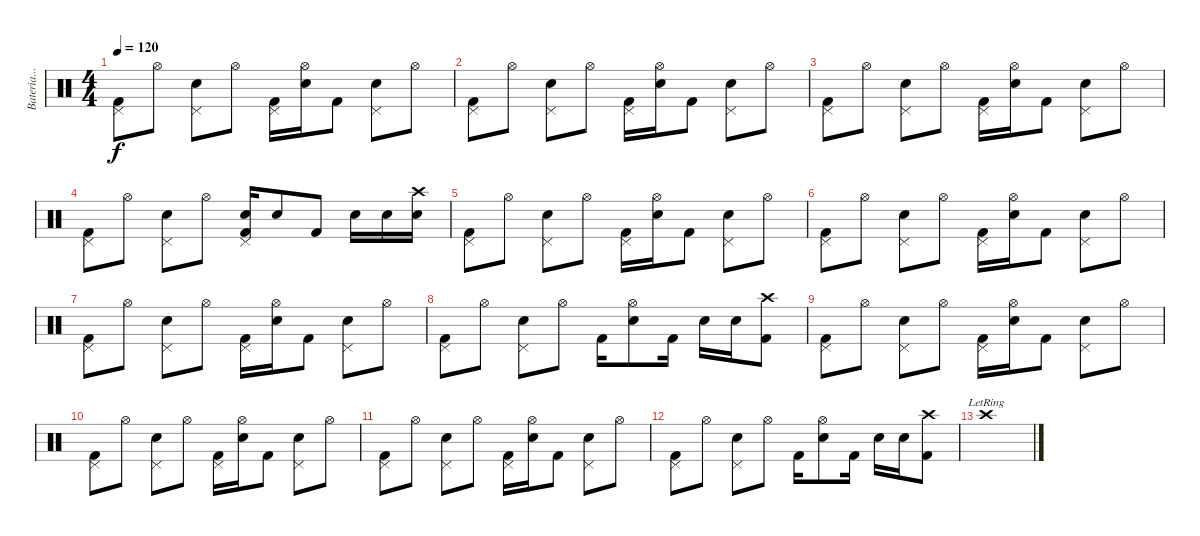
\track ("Bateria...xD" "Bateria...") {instrument percussion}
\staff {score}
\articulation defaults
\ts (4 4)
\tempo 120
\clef neutral
\ks c
("Pedal Hi-Hat (hit)" "Kick (hit) 2").8{dy f} "Hi-Hat (open)".8 ("Pedal Hi-Hat (hit)" "Electric Snare (hit)").8 "Hi-Hat (open)".8 ("Pedal Hi-Hat (hit)" "Kick (hit) 2").16 ("Hi-Hat (open)" "Electric Snare (hit)").16 "Kick (hit) 2".8 ("Pedal Hi-Hat (hit)" "Electric Snare (hit)").8 "Hi-Hat (open)".8 |
("Pedal Hi-Hat (hit)" "Kick (hit) 2").8 "Hi-Hat (open)".8 ("Pedal Hi-Hat (hit)" "Electric Snare (hit)").8 "Hi-Hat (open)".8 ("Pedal Hi-Hat (hit)" "Kick (hit) 2").16 ("Hi-Hat (open)" "Electric Snare (hit)").16 "Kick (hit) 2".8 ("Pedal Hi-Hat (hit)" "Electric Snare (hit)").8 "Hi-Hat (open)".8 |
("Pedal Hi-Hat (hit)" "Kick (hit) 2").8 "Hi-Hat (open)".8 ("Pedal Hi-Hat (hit)" "Electric Snare (hit)").8 "Hi-Hat (open)".8 ("Pedal Hi-Hat (hit)" "Kick (hit) 2").16 ("Hi-Hat (open)" "Electric Snare (hit)").16 "Kick (hit) 2".8 ("Pedal Hi-Hat (hit)" "Electric Snare (hit)").8 "Hi-Hat (open)".8 |
("Pedal Hi-Hat (hit)" "Kick (hit) 2").8 "Hi-Hat (open)".8 ("Pedal Hi-Hat (hit)" "Electric Snare (hit)").8 "Hi-Hat (open)".8 ("Pedal Hi-Hat (hit)" "Electric Snare (hit)" "Kick (hit) 2").16 "Electric Snare (hit)".8 "Kick (hit) 2".8 "Electric Snare (hit)".16 "Electric Snare (hit)".16 ("Crash high (hit)" "Electric Snare (hit)").16 |
("Pedal Hi-Hat (hit)" "Kick (hit) 2").8 "Hi-Hat (open)".8 ("Pedal Hi-Hat (hit)" "Electric Snare (hit)").8 "Hi-Hat (open)".8 ("Pedal Hi-Hat (hit)" "Kick (hit) 2").16 ("Hi-Hat (open)" "Electric Snare (hit)").16 "Kick (hit) 2".8 ("Pedal Hi-Hat (hit)" "Electric Snare (hit)").8 "Hi-Hat (open)".8 |
("Pedal Hi-Hat (hit)" "Kick (hit) 2").8 "Hi-Hat (open)".8 ("Pedal Hi-Hat (hit)" "Electric Snare (hit)").8 "Hi-Hat (open)".8 ("Pedal Hi-Hat (hit)" "Kick (hit) 2").16 ("Hi-Hat (open)" "Electric Snare (hit)").16 "Kick (hit) 2".8 ("Pedal Hi-Hat (hit)" "Electric Snare (hit)").8 "Hi-Hat (open)".8 |
("Pedal Hi-Hat (hit)" "Kick (hit) 2").8 "Hi-Hat (open)".8 ("Pedal Hi-Hat (hit)" "Electric Snare (hit)").8 "Hi-Hat (open)".8 ("Pedal Hi-Hat (hit)" "Kick (hit) 2").16 ("Hi-Hat (open)" "Electric Snare (hit)").16 "Kick (hit) 2".8 ("Pedal Hi-Hat (hit)" "Electric Snare (hit)").8 "Hi-Hat (open)".8 |
("Pedal Hi-Hat (hit)" "Kick (hit) 2").8 "Hi-Hat (open)".8 ("Pedal Hi-Hat (hit)" "Electric Snare (hit)").8 "Hi-Hat (open)".8 "Kick (hit) 2".16 ("Hi-Hat (open)" "Electric Snare (hit)").8 "Kick (hit) 2".16 "Electric Snare (hit)".16 "Electric Snare (hit)".16 ("Crash high (hit)" "Kick (hit) 2").8 |
("Pedal Hi-Hat (hit)" "Kick (hit) 2").8 "Hi-Hat (open)".8 ("Pedal Hi-Hat (hit)" "Electric Snare (hit)").8 "Hi-Hat (open)".8 ("Pedal Hi-Hat (hit)" "Kick (hit) 2").16 ("Hi-Hat (open)" "Electric Snare (hit)").16 "Kick (hit) 2".8 ("Pedal Hi-Hat (hit)" "Electric Snare (hit)").8 "Hi-Hat (open)".8 |
("Pedal Hi-Hat (hit)" "Kick (hit) 2").8 "Hi-Hat (open)".8 ("Pedal Hi-Hat (hit)" "Electric Snare (hit)").8 "Hi-Hat (open)".8 ("Pedal Hi-Hat (hit)" "Kick (hit) 2").16 ("Hi-Hat (open)" "Electric Snare (hit)").16 "Kick (hit) 2".8 ("Pedal Hi-Hat (hit)" "Electric Snare (hit)").8 "Hi-Hat (open)".8 |
("Pedal Hi-Hat (hit)" "Kick (hit) 2").8 "Hi-Hat (open)".8 ("Pedal Hi-Hat (hit)" "Electric Snare (hit)").8 "Hi-Hat (open)".8 ("Pedal Hi-Hat (hit)" "Kick (hit) 2").16 ("Hi-Hat (open)" "Electric Snare (hit)").16 "Kick (hit) 2".8 ("Pedal Hi-Hat (hit)" "Electric Snare (hit)").8 "Hi-Hat (open)".8 |
("Pedal Hi-Hat (hit)" "Kick (hit) 2").8 "Hi-Hat (open)".8 ("Pedal Hi-Hat (hit)" "Electric Snare (hit)").8 "Hi-Hat (open)".8 "Kick (hit) 2".16 ("Hi-Hat (open)" "Electric Snare (hit)").8 "Kick (hit) 2".16 "Electric Snare (hit)".16 "Electric Snare (hit)".16 ("Crash high (hit)" "Kick (hit) 2").8 |
"Crash high (hit)"{lr}.1
